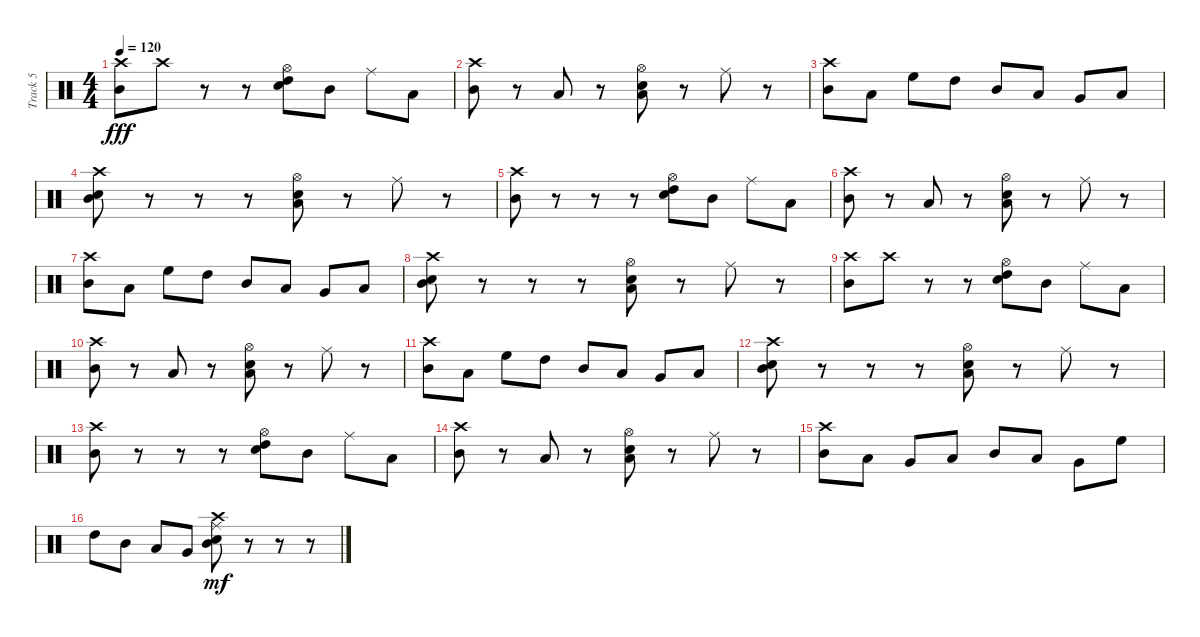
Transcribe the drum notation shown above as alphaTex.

\track ("Track 5" "Track 5") {instrument percussion}
\staff {score}
\articulation defaults
\ts (4 4)
\tempo 120
\clef neutral
\ks c
("Mid Tom (hit)" "Crash high (hit)").8{dy fff} "Crash high (hit)".8 r.8 r.8 ("High Tom (hit)" "Electric Snare (hit)" "Hi-Hat (open)").8 "Mid Tom (hit)".8 "Ride (middle)".8 "Low Tom (hit)".8 |
("Mid Tom (hit)" "Crash high (hit)").8 r.8 "Low Tom (hit)".8 r.8 ("Low Tom (hit)" "Electric Snare (hit)" "Hi-Hat (open)").8 r.8 "Ride (middle)".8 r.8 |
("Mid Tom (hit)" "Crash high (hit)").8 "Low Floor Tom (hit)".8 "High Floor Tom (hit)".8 "High Tom (hit)".8 "Mid Tom (hit)".8 "Low Tom (hit)".8 "Very Low Tom (hit)".8 "Low Floor Tom (hit)".8 |
("Snare (hit) 2" "Mid Tom (hit)" "Crash high (hit)").8 r.8 r.8 r.8 ("Low Tom (hit)" "Electric Snare (hit)" "Hi-Hat (open)").8 r.8 "Ride (middle)".8 r.8 |
("Mid Tom (hit)" "Crash high (hit)").8 r.8 r.8 r.8 ("High Tom (hit)" "Electric Snare (hit)" "Hi-Hat (open)").8 "Mid Tom (hit)".8 "Ride (middle)".8 "Low Tom (hit)".8 |
("Mid Tom (hit)" "Crash high (hit)").8 r.8 "Low Tom (hit)".8 r.8 ("Low Tom (hit)" "Electric Snare (hit)" "Hi-Hat (open)").8 r.8 "Ride (middle)".8 r.8 |
("Mid Tom (hit)" "Crash high (hit)").8 "Low Floor Tom (hit)".8 "High Floor Tom (hit)".8 "High Tom (hit)".8 "Mid Tom (hit)".8 "Low Tom (hit)".8 "Very Low Tom (hit)".8 "Low Floor Tom (hit)".8 |
("Snare (hit) 2" "Mid Tom (hit)" "Crash high (hit)").8 r.8 r.8 r.8 ("Low Tom (hit)" "Electric Snare (hit)" "Hi-Hat (open)").8 r.8 "Ride (middle)".8 r.8 |
("Mid Tom (hit)" "Crash high (hit)").8 "Crash high (hit)".8 r.8 r.8 ("High Tom (hit)" "Electric Snare (hit)" "Hi-Hat (open)").8 "Mid Tom (hit)".8 "Ride (middle)".8 "Low Tom (hit)".8 |
("Mid Tom (hit)" "Crash high (hit)").8 r.8 "Low Tom (hit)".8 r.8 ("Low Tom (hit)" "Electric Snare (hit)" "Hi-Hat (open)").8 r.8 "Ride (middle)".8 r.8 |
("Mid Tom (hit)" "Crash high (hit)").8 "Low Floor Tom (hit)".8 "High Floor Tom (hit)".8 "High Tom (hit)".8 "Mid Tom (hit)".8 "Low Tom (hit)".8 "Very Low Tom (hit)".8 "Low Floor Tom (hit)".8 |
("Snare (hit) 2" "Mid Tom (hit)" "Crash high (hit)").8 r.8 r.8 r.8 ("Low Tom (hit)" "Electric Snare (hit)" "Hi-Hat (open)").8 r.8 "Ride (middle)".8 r.8 |
("Mid Tom (hit)" "Crash high (hit)").8 r.8 r.8 r.8 ("High Tom (hit)" "Electric Snare (hit)" "Hi-Hat (open)").8 "Mid Tom (hit)".8 "Ride (middle)".8 "Low Tom (hit)".8 |
("Mid Tom (hit)" "Crash high (hit)").8 r.8 "Low Tom (hit)".8 r.8 ("Low Tom (hit)" "Electric Snare (hit)" "Hi-Hat (open)").8 r.8 "Ride (middle)".8 r.8 |
("Mid Tom (hit)" "Crash high (hit)").8 "Low Tom (hit)".8 "Very Low Tom (hit)".8 "Low Floor Tom (hit)".8 "Mid Tom (hit)".8 "Low Tom (hit)".8 "Very Low Tom (hit)".8 "High Floor Tom (hit)".8 |
"High Tom (hit)".8 "Mid Tom (hit)".8 "Low Tom (hit)".8 "Very Low Tom (hit)".8 ("Crash high (hit)" "Electric Snare (hit)" "Ride (middle)" "Mid Tom (hit)").8{dy mf} r.8 r.8 r.8
